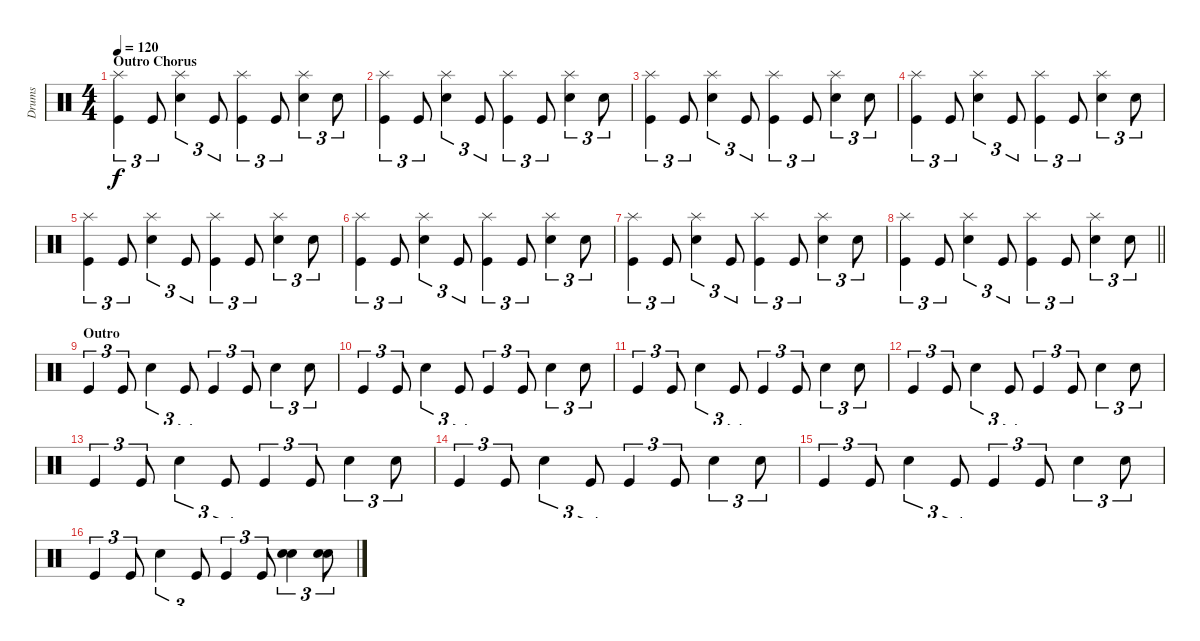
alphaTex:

\track ("Drums" "Drums") {instrument percussion}
\staff {score}
\articulation defaults
\ts (4 4)
\section ("" "Outro Chorus")
\tempo 120
\clef neutral
\ks c
("Splash (hit)" "Kick (hit)").4{tu (3 2) dy f} "Kick (hit)".8{tu (3 2)} ("Splash (hit)" "Electric Snare (hit)").4{tu (3 2)} "Kick (hit)".8{tu (3 2)} ("Splash (hit)" "Kick (hit)").4{tu (3 2)} "Kick (hit)".8{tu (3 2)} ("Splash (hit)" "Electric Snare (hit)").4{tu (3 2)} "Electric Snare (hit)".8{tu (3 2)} |
("Splash (hit)" "Kick (hit)").4{tu (3 2)} "Kick (hit)".8{tu (3 2)} ("Splash (hit)" "Electric Snare (hit)").4{tu (3 2)} "Kick (hit)".8{tu (3 2)} ("Splash (hit)" "Kick (hit)").4{tu (3 2)} "Kick (hit)".8{tu (3 2)} ("Splash (hit)" "Electric Snare (hit)").4{tu (3 2)} "Electric Snare (hit)".8{tu (3 2)} |
("Splash (hit)" "Kick (hit)").4{tu (3 2)} "Kick (hit)".8{tu (3 2)} ("Splash (hit)" "Electric Snare (hit)").4{tu (3 2)} "Kick (hit)".8{tu (3 2)} ("Splash (hit)" "Kick (hit)").4{tu (3 2)} "Kick (hit)".8{tu (3 2)} ("Splash (hit)" "Electric Snare (hit)").4{tu (3 2)} "Electric Snare (hit)".8{tu (3 2)} |
("Splash (hit)" "Kick (hit)").4{tu (3 2)} "Kick (hit)".8{tu (3 2)} ("Splash (hit)" "Electric Snare (hit)").4{tu (3 2)} "Kick (hit)".8{tu (3 2)} ("Splash (hit)" "Kick (hit)").4{tu (3 2)} "Kick (hit)".8{tu (3 2)} ("Splash (hit)" "Electric Snare (hit)").4{tu (3 2)} "Electric Snare (hit)".8{tu (3 2)} |
("Splash (hit)" "Kick (hit)").4{tu (3 2)} "Kick (hit)".8{tu (3 2)} ("Splash (hit)" "Electric Snare (hit)").4{tu (3 2)} "Kick (hit)".8{tu (3 2)} ("Splash (hit)" "Kick (hit)").4{tu (3 2)} "Kick (hit)".8{tu (3 2)} ("Splash (hit)" "Electric Snare (hit)").4{tu (3 2)} "Electric Snare (hit)".8{tu (3 2)} |
("Splash (hit)" "Kick (hit)").4{tu (3 2)} "Kick (hit)".8{tu (3 2)} ("Splash (hit)" "Electric Snare (hit)").4{tu (3 2)} "Kick (hit)".8{tu (3 2)} ("Splash (hit)" "Kick (hit)").4{tu (3 2)} "Kick (hit)".8{tu (3 2)} ("Splash (hit)" "Electric Snare (hit)").4{tu (3 2)} "Electric Snare (hit)".8{tu (3 2)} |
("Splash (hit)" "Kick (hit)").4{tu (3 2)} "Kick (hit)".8{tu (3 2)} ("Splash (hit)" "Electric Snare (hit)").4{tu (3 2)} "Kick (hit)".8{tu (3 2)} ("Splash (hit)" "Kick (hit)").4{tu (3 2)} "Kick (hit)".8{tu (3 2)} ("Splash (hit)" "Electric Snare (hit)").4{tu (3 2)} "Electric Snare (hit)".8{tu (3 2)} |
\barLineRight lightlight
("Splash (hit)" "Kick (hit)").4{tu (3 2)} "Kick (hit)".8{tu (3 2)} ("Splash (hit)" "Electric Snare (hit)").4{tu (3 2)} "Kick (hit)".8{tu (3 2)} ("Splash (hit)" "Kick (hit)").4{tu (3 2)} "Kick (hit)".8{tu (3 2)} ("Splash (hit)" "Electric Snare (hit)").4{tu (3 2)} "Electric Snare (hit)".8{tu (3 2)} |
\section ("" "Outro")
"Kick (hit)".4{tu (3 2)} "Kick (hit)".8{tu (3 2)} "Electric Snare (hit)".4{tu (3 2)} "Kick (hit)".8{tu (3 2)} "Kick (hit)".4{tu (3 2)} "Kick (hit)".8{tu (3 2)} "Electric Snare (hit)".4{tu (3 2)} "Electric Snare (hit)".8{tu (3 2)} |
"Kick (hit)".4{tu (3 2)} "Kick (hit)".8{tu (3 2)} "Electric Snare (hit)".4{tu (3 2)} "Kick (hit)".8{tu (3 2)} "Kick (hit)".4{tu (3 2)} "Kick (hit)".8{tu (3 2)} "Electric Snare (hit)".4{tu (3 2)} "Electric Snare (hit)".8{tu (3 2)} |
"Kick (hit)".4{tu (3 2)} "Kick (hit)".8{tu (3 2)} "Electric Snare (hit)".4{tu (3 2)} "Kick (hit)".8{tu (3 2)} "Kick (hit)".4{tu (3 2)} "Kick (hit)".8{tu (3 2)} "Electric Snare (hit)".4{tu (3 2)} "Electric Snare (hit)".8{tu (3 2)} |
"Kick (hit)".4{tu (3 2)} "Kick (hit)".8{tu (3 2)} "Electric Snare (hit)".4{tu (3 2)} "Kick (hit)".8{tu (3 2)} "Kick (hit)".4{tu (3 2)} "Kick (hit)".8{tu (3 2)} "Electric Snare (hit)".4{tu (3 2)} "Electric Snare (hit)".8{tu (3 2)} |
"Kick (hit)".4{tu (3 2)} "Kick (hit)".8{tu (3 2)} "Electric Snare (hit)".4{tu (3 2)} "Kick (hit)".8{tu (3 2)} "Kick (hit)".4{tu (3 2)} "Kick (hit)".8{tu (3 2)} "Electric Snare (hit)".4{tu (3 2)} "Electric Snare (hit)".8{tu (3 2)} |
"Kick (hit)".4{tu (3 2)} "Kick (hit)".8{tu (3 2)} "Electric Snare (hit)".4{tu (3 2)} "Kick (hit)".8{tu (3 2)} "Kick (hit)".4{tu (3 2)} "Kick (hit)".8{tu (3 2)} "Electric Snare (hit)".4{tu (3 2)} "Electric Snare (hit)".8{tu (3 2)} |
"Kick (hit)".4{tu (3 2)} "Kick (hit)".8{tu (3 2)} "Electric Snare (hit)".4{tu (3 2)} "Kick (hit)".8{tu (3 2)} "Kick (hit)".4{tu (3 2)} "Kick (hit)".8{tu (3 2)} "Electric Snare (hit)".4{tu (3 2)} "Electric Snare (hit)".8{tu (3 2)} |
"Kick (hit)".4{tu (3 2)} "Kick (hit)".8{tu (3 2)} "Electric Snare (hit)".4{tu (3 2)} "Kick (hit)".8{tu (3 2)} "Kick (hit)".4{tu (3 2)} "Kick (hit)".8{tu (3 2)} ("Snare (hit) 2" "Electric Snare (hit)").4{tu (3 2)} ("Snare (hit) 2" "Electric Snare (hit)").8{tu (3 2)}
